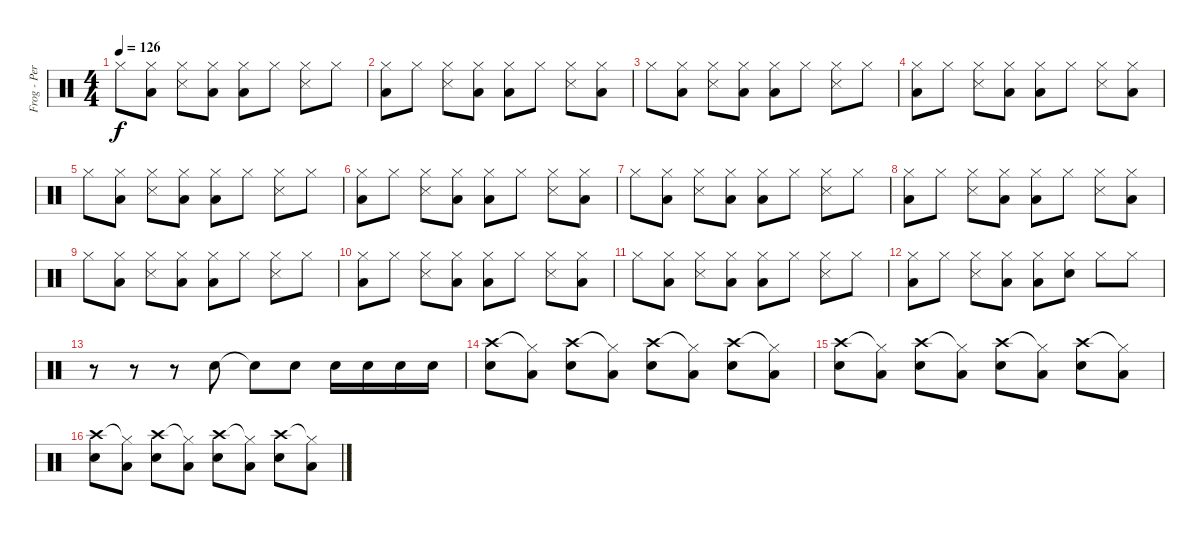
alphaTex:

\track ("Frog - Percussions" "Frog - Per") {instrument percussion}
\staff {score}
\articulation defaults
\ts (4 4)
\tempo 126
\clef neutral
\ks c "Hi-Hat (closed)".8{dy f}
("Hi-Hat (closed)" "Low Floor Tom (hit)").8 ("Hi-Hat (closed)" "Snare (side stick) 3").8 ("Hi-Hat (closed)" "Low Floor Tom (hit)").8 ("Hi-Hat (closed)" "Low Floor Tom (hit)").8 "Hi-Hat (closed)".8 ("Hi-Hat (closed)" "Snare (side stick) 3").8 "Hi-Hat (closed)".8 |
("Hi-Hat (closed)" "Low Floor Tom (hit)").8 "Hi-Hat (closed)".8 ("Hi-Hat (closed)" "Snare (side stick) 3").8 ("Hi-Hat (closed)" "Low Floor Tom (hit)").8 ("Hi-Hat (closed)" "Low Floor Tom (hit)").8 "Hi-Hat (closed)".8 ("Hi-Hat (closed)" "Snare (side stick) 3").8 ("Hi-Hat (closed)" "Low Floor Tom (hit)").8 |
"Hi-Hat (closed)".8 ("Hi-Hat (closed)" "Low Floor Tom (hit)").8 ("Hi-Hat (closed)" "Snare (side stick) 3").8 ("Hi-Hat (closed)" "Low Floor Tom (hit)").8 ("Hi-Hat (closed)" "Low Floor Tom (hit)").8 "Hi-Hat (closed)".8 ("Hi-Hat (closed)" "Snare (side stick) 3").8 "Hi-Hat (closed)".8 |
("Hi-Hat (closed)" "Low Floor Tom (hit)").8 "Hi-Hat (closed)".8 ("Hi-Hat (closed)" "Snare (side stick) 3").8 ("Hi-Hat (closed)" "Low Floor Tom (hit)").8 ("Hi-Hat (closed)" "Low Floor Tom (hit)").8 "Hi-Hat (closed)".8 ("Hi-Hat (closed)" "Snare (side stick) 3").8 ("Hi-Hat (closed)" "Low Floor Tom (hit)").8 |
"Hi-Hat (closed)".8 ("Hi-Hat (closed)" "Low Floor Tom (hit)").8 ("Hi-Hat (closed)" "Snare (side stick) 3").8 ("Hi-Hat (closed)" "Low Floor Tom (hit)").8 ("Hi-Hat (closed)" "Low Floor Tom (hit)").8 "Hi-Hat (closed)".8 ("Hi-Hat (closed)" "Snare (side stick) 3").8 "Hi-Hat (closed)".8 |
("Hi-Hat (closed)" "Low Floor Tom (hit)").8 "Hi-Hat (closed)".8 ("Hi-Hat (closed)" "Snare (side stick) 3").8 ("Hi-Hat (closed)" "Low Floor Tom (hit)").8 ("Hi-Hat (closed)" "Low Floor Tom (hit)").8 "Hi-Hat (closed)".8 ("Hi-Hat (closed)" "Snare (side stick) 3").8 ("Hi-Hat (closed)" "Low Floor Tom (hit)").8 |
"Hi-Hat (closed)".8 ("Hi-Hat (closed)" "Low Floor Tom (hit)").8 ("Hi-Hat (closed)" "Snare (side stick) 3").8 ("Hi-Hat (closed)" "Low Floor Tom (hit)").8 ("Hi-Hat (closed)" "Low Floor Tom (hit)").8 "Hi-Hat (closed)".8 ("Hi-Hat (closed)" "Snare (side stick) 3").8 "Hi-Hat (closed)".8 |
("Hi-Hat (closed)" "Low Floor Tom (hit)").8 "Hi-Hat (closed)".8 ("Hi-Hat (closed)" "Snare (side stick) 3").8 ("Hi-Hat (closed)" "Low Floor Tom (hit)").8 ("Hi-Hat (closed)" "Low Floor Tom (hit)").8 "Hi-Hat (closed)".8 ("Hi-Hat (closed)" "Snare (side stick) 3").8 ("Hi-Hat (closed)" "Low Floor Tom (hit)").8 |
"Hi-Hat (closed)".8 ("Hi-Hat (closed)" "Low Floor Tom (hit)").8 ("Hi-Hat (closed)" "Snare (side stick) 3").8 ("Hi-Hat (closed)" "Low Floor Tom (hit)").8 ("Hi-Hat (closed)" "Low Floor Tom (hit)").8 "Hi-Hat (closed)".8 ("Hi-Hat (closed)" "Snare (side stick) 3").8 "Hi-Hat (closed)".8 |
("Hi-Hat (closed)" "Low Floor Tom (hit)").8 "Hi-Hat (closed)".8 ("Hi-Hat (closed)" "Snare (side stick) 3").8 ("Hi-Hat (closed)" "Low Floor Tom (hit)").8 ("Hi-Hat (closed)" "Low Floor Tom (hit)").8 "Hi-Hat (closed)".8 ("Hi-Hat (closed)" "Snare (side stick) 3").8 ("Hi-Hat (closed)" "Low Floor Tom (hit)").8 |
"Hi-Hat (closed)".8 ("Hi-Hat (closed)" "Low Floor Tom (hit)").8 ("Hi-Hat (closed)" "Snare (side stick) 3").8 ("Hi-Hat (closed)" "Low Floor Tom (hit)").8 ("Hi-Hat (closed)" "Low Floor Tom (hit)").8 "Hi-Hat (closed)".8 ("Hi-Hat (closed)" "Snare (side stick) 3").8 "Hi-Hat (closed)".8 |
("Hi-Hat (closed)" "Low Floor Tom (hit)").8 "Hi-Hat (closed)".8 ("Hi-Hat (closed)" "Snare (side stick) 3").8 ("Hi-Hat (closed)" "Low Floor Tom (hit)").8 ("Hi-Hat (closed)" "Low Floor Tom (hit)").8 ("Hi-Hat (closed)" "Snare (hit) 2").8 "Hi-Hat (closed)".8 "Hi-Hat (closed)".8 |
r.8 r.8 r.8 "Snare (hit) 2".8 "Snare (hit)"{t}.8 "Snare (hit) 2".8 "Snare (hit) 2".16 "Snare (hit) 2".16 "Snare (hit) 2".16 "Snare (hit) 2".16 |
("Crash high (hit)" "Snare (hit) 2").8 ("Hi-Hat (closed)"{t} "Low Floor Tom (hit)").8 ("Crash high (hit)" "Snare (hit) 2").8 ("Hi-Hat (closed)"{t} "Low Floor Tom (hit)").8 ("Crash high (hit)" "Snare (hit) 2").8 ("Hi-Hat (closed)"{t} "Low Floor Tom (hit)").8 ("Crash high (hit)" "Snare (hit) 2").8 ("Hi-Hat (closed)"{t} "Low Floor Tom (hit)").8 |
("Crash high (hit)" "Snare (hit) 2").8 ("Hi-Hat (closed)"{t} "Low Floor Tom (hit)").8 ("Crash high (hit)" "Snare (hit) 2").8 ("Hi-Hat (closed)"{t} "Low Floor Tom (hit)").8 ("Crash high (hit)" "Snare (hit) 2").8 ("Hi-Hat (closed)"{t} "Low Floor Tom (hit)").8 ("Crash high (hit)" "Snare (hit) 2").8 ("Hi-Hat (closed)"{t} "Low Floor Tom (hit)").8 |
("Crash high (hit)" "Snare (hit) 2").8 ("Hi-Hat (closed)"{t} "Low Floor Tom (hit)").8 ("Crash high (hit)" "Snare (hit) 2").8 ("Hi-Hat (closed)"{t} "Low Floor Tom (hit)").8 ("Crash high (hit)" "Snare (hit) 2").8 ("Hi-Hat (closed)"{t} "Low Floor Tom (hit)").8 ("Crash high (hit)" "Snare (hit) 2").8 ("Hi-Hat (closed)"{t} "Low Floor Tom (hit)").8
